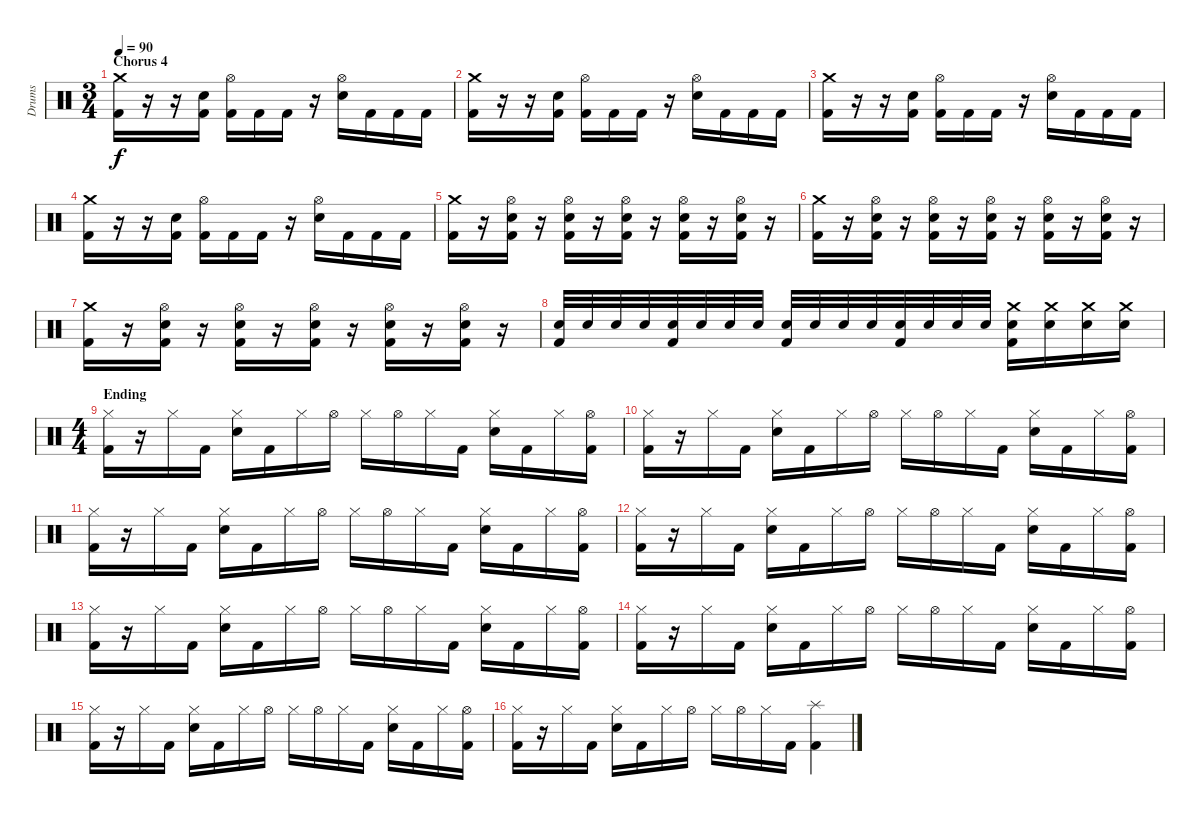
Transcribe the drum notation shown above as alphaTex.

\track ("Drums" "Drums") {instrument percussion}
\staff {score}
\articulation defaults
\ts (3 4)
\section ("" "Chorus 4")
\tempo 90
\clef neutral
\ks c
("Crash medium (hit)" "Kick (hit) 2").16{dy f} r.16 r.16 ("Snare (hit) 2" "Kick (hit) 2").16 ("Hi-Hat (open)" "Kick (hit) 2").16 "Kick (hit) 2".16 "Kick (hit) 2".16 r.16 ("Hi-Hat (open)" "Snare (hit) 2").16 "Kick (hit) 2".16 "Kick (hit) 2".16 "Kick (hit) 2".16 |
("Crash medium (hit)" "Kick (hit) 2").16 r.16 r.16 ("Snare (hit) 2" "Kick (hit) 2").16 ("Hi-Hat (open)" "Kick (hit) 2").16 "Kick (hit) 2".16 "Kick (hit) 2".16 r.16 ("Hi-Hat (open)" "Snare (hit) 2").16 "Kick (hit) 2".16 "Kick (hit) 2".16 "Kick (hit) 2".16 |
("Crash medium (hit)" "Kick (hit) 2").16 r.16 r.16 ("Snare (hit) 2" "Kick (hit) 2").16 ("Hi-Hat (open)" "Kick (hit) 2").16 "Kick (hit) 2".16 "Kick (hit) 2".16 r.16 ("Hi-Hat (open)" "Snare (hit) 2").16 "Kick (hit) 2".16 "Kick (hit) 2".16 "Kick (hit) 2".16 |
("Crash medium (hit)" "Kick (hit) 2").16 r.16 r.16 ("Snare (hit) 2" "Kick (hit) 2").16 ("Hi-Hat (open)" "Kick (hit) 2").16 "Kick (hit) 2".16 "Kick (hit) 2".16 r.16 ("Hi-Hat (open)" "Snare (hit) 2").16 "Kick (hit) 2".16 "Kick (hit) 2".16 "Kick (hit) 2".16 |
("Crash medium (hit)" "Kick (hit) 2").16 r.16 ("Hi-Hat (open)" "Snare (hit) 2" "Kick (hit) 2").16 r.16 ("Hi-Hat (open)" "Snare (hit) 2" "Kick (hit) 2").16 r.16 ("Hi-Hat (open)" "Snare (hit) 2" "Kick (hit) 2").16 r.16 ("Hi-Hat (open)" "Snare (hit) 2" "Kick (hit) 2").16 r.16 ("Hi-Hat (open)" "Snare (hit) 2" "Kick (hit) 2").16 r.16 |
("Crash medium (hit)" "Kick (hit) 2").16 r.16 ("Hi-Hat (open)" "Snare (hit) 2" "Kick (hit) 2").16 r.16 ("Hi-Hat (open)" "Snare (hit) 2" "Kick (hit) 2").16 r.16 ("Hi-Hat (open)" "Snare (hit) 2" "Kick (hit) 2").16 r.16 ("Hi-Hat (open)" "Snare (hit) 2" "Kick (hit) 2").16 r.16 ("Hi-Hat (open)" "Snare (hit) 2" "Kick (hit) 2").16 r.16 |
("Crash medium (hit)" "Kick (hit) 2").16 r.16 ("Hi-Hat (open)" "Snare (hit) 2" "Kick (hit) 2").16 r.16 ("Hi-Hat (open)" "Snare (hit) 2" "Kick (hit) 2").16 r.16 ("Hi-Hat (open)" "Snare (hit) 2" "Kick (hit) 2").16 r.16 ("Hi-Hat (open)" "Snare (hit) 2" "Kick (hit) 2").16 r.16 ("Hi-Hat (open)" "Snare (hit) 2" "Kick (hit) 2").16 r.16 |
("Snare (hit) 2" "Kick (hit) 2").32 "Snare (hit) 2".32 "Snare (hit) 2".32 "Snare (hit) 2".32 ("Snare (hit) 2" "Kick (hit) 2").32 "Snare (hit) 2".32 "Snare (hit) 2".32 "Snare (hit) 2".32 ("Snare (hit) 2" "Kick (hit) 2").32 "Snare (hit) 2".32 "Snare (hit) 2".32 "Snare (hit) 2".32 ("Snare (hit) 2" "Kick (hit) 2").32 "Snare (hit) 2".32 "Snare (hit) 2".32 "Snare (hit) 2".32 ("Crash medium (hit)" "Snare (hit) 2" "Kick (hit) 2").16 ("Crash medium (hit)" "Snare (hit) 2").16 ("Crash medium (hit)" "Snare (hit) 2").16 ("Crash medium (hit)" "Snare (hit) 2").16 |
\ts (4 4)
\section ("" "Ending")
("Hi-Hat (closed)" "Kick (hit) 2").16 r.16 "Hi-Hat (closed)".16 "Kick (hit) 2".16 ("Hi-Hat (closed)" "Snare (hit) 2").16 "Kick (hit) 2".16 "Hi-Hat (closed)".16 "Hi-Hat (open)".16 "Hi-Hat (closed)".16 "Hi-Hat (open)".16 "Hi-Hat (closed)".16 "Kick (hit) 2".16 ("Hi-Hat (closed)" "Snare (hit) 2").16 "Kick (hit) 2".16 "Hi-Hat (closed)".16 ("Hi-Hat (open)" "Kick (hit) 2").16 |
("Hi-Hat (closed)" "Kick (hit) 2").16 r.16 "Hi-Hat (closed)".16 "Kick (hit) 2".16 ("Hi-Hat (closed)" "Snare (hit) 2").16 "Kick (hit) 2".16 "Hi-Hat (closed)".16 "Hi-Hat (open)".16 "Hi-Hat (closed)".16 "Hi-Hat (open)".16 "Hi-Hat (closed)".16 "Kick (hit) 2".16 ("Hi-Hat (closed)" "Snare (hit) 2").16 "Kick (hit) 2".16 "Hi-Hat (closed)".16 ("Hi-Hat (open)" "Kick (hit) 2").16 |
("Hi-Hat (closed)" "Kick (hit) 2").16 r.16 "Hi-Hat (closed)".16 "Kick (hit) 2".16 ("Hi-Hat (closed)" "Snare (hit) 2").16 "Kick (hit) 2".16 "Hi-Hat (closed)".16 "Hi-Hat (open)".16 "Hi-Hat (closed)".16 "Hi-Hat (open)".16 "Hi-Hat (closed)".16 "Kick (hit) 2".16 ("Hi-Hat (closed)" "Snare (hit) 2").16 "Kick (hit) 2".16 "Hi-Hat (closed)".16 ("Hi-Hat (open)" "Kick (hit) 2").16 |
("Hi-Hat (closed)" "Kick (hit) 2").16 r.16 "Hi-Hat (closed)".16 "Kick (hit) 2".16 ("Hi-Hat (closed)" "Snare (hit) 2").16 "Kick (hit) 2".16 "Hi-Hat (closed)".16 "Hi-Hat (open)".16 "Hi-Hat (closed)".16 "Hi-Hat (open)".16 "Hi-Hat (closed)".16 "Kick (hit) 2".16 ("Hi-Hat (closed)" "Snare (hit) 2").16 "Kick (hit) 2".16 "Hi-Hat (closed)".16 ("Hi-Hat (open)" "Kick (hit) 2").16 |
("Hi-Hat (closed)" "Kick (hit) 2").16 r.16 "Hi-Hat (closed)".16 "Kick (hit) 2".16 ("Hi-Hat (closed)" "Snare (hit) 2").16 "Kick (hit) 2".16 "Hi-Hat (closed)".16 "Hi-Hat (open)".16 "Hi-Hat (closed)".16 "Hi-Hat (open)".16 "Hi-Hat (closed)".16 "Kick (hit) 2".16 ("Hi-Hat (closed)" "Snare (hit) 2").16 "Kick (hit) 2".16 "Hi-Hat (closed)".16 ("Hi-Hat (open)" "Kick (hit) 2").16 |
("Hi-Hat (closed)" "Kick (hit) 2").16 r.16 "Hi-Hat (closed)".16 "Kick (hit) 2".16 ("Hi-Hat (closed)" "Snare (hit) 2").16 "Kick (hit) 2".16 "Hi-Hat (closed)".16 "Hi-Hat (open)".16 "Hi-Hat (closed)".16 "Hi-Hat (open)".16 "Hi-Hat (closed)".16 "Kick (hit) 2".16 ("Hi-Hat (closed)" "Snare (hit) 2").16 "Kick (hit) 2".16 "Hi-Hat (closed)".16 ("Hi-Hat (open)" "Kick (hit) 2").16 |
("Hi-Hat (closed)" "Kick (hit) 2").16 r.16 "Hi-Hat (closed)".16 "Kick (hit) 2".16 ("Hi-Hat (closed)" "Snare (hit) 2").16 "Kick (hit) 2".16 "Hi-Hat (closed)".16 "Hi-Hat (open)".16 "Hi-Hat (closed)".16 "Hi-Hat (open)".16 "Hi-Hat (closed)".16 "Kick (hit) 2".16 ("Hi-Hat (closed)" "Snare (hit) 2").16 "Kick (hit) 2".16 "Hi-Hat (closed)".16 ("Hi-Hat (open)" "Kick (hit) 2").16 |
("Hi-Hat (closed)" "Kick (hit) 2").16 r.16 "Hi-Hat (closed)".16 "Kick (hit) 2".16 ("Hi-Hat (closed)" "Snare (hit) 2").16 "Kick (hit) 2".16 "Hi-Hat (closed)".16 "Hi-Hat (open)".16 "Hi-Hat (closed)".16 "Hi-Hat (open)".16 "Hi-Hat (closed)".16 "Kick (hit) 2".16 ("Splash (hit)" "Kick (hit) 2").4
